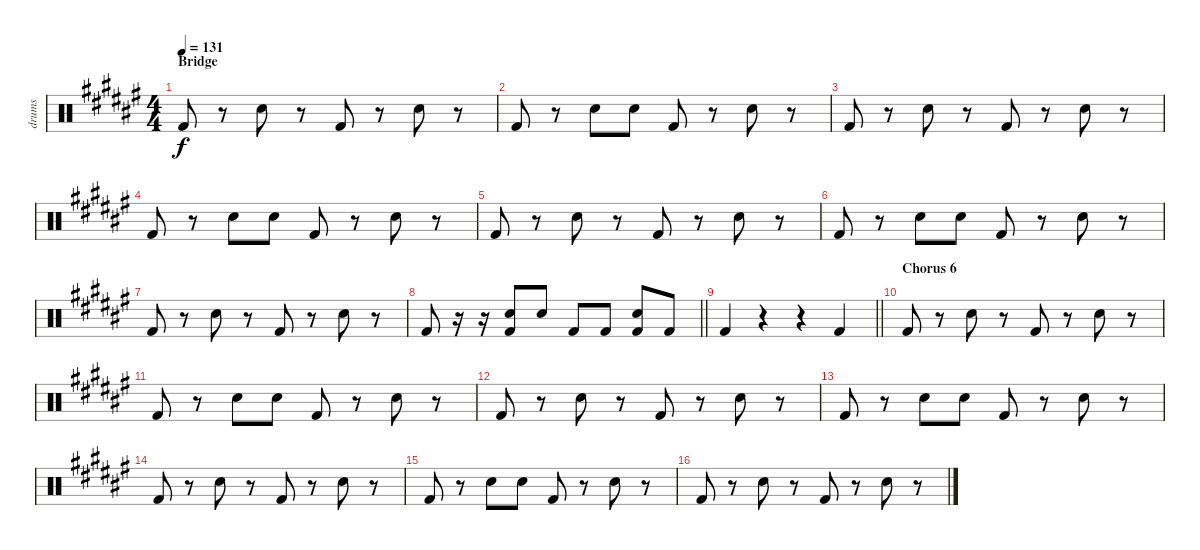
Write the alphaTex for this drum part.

\track ("drums" "drums") {instrument percussion}
\staff {score}
\articulation defaults
\ts (4 4)
\section ("" "Bridge")
\tempo 131
\clef neutral
\ks f# "Kick (hit) 2".8{dy f}
r.8 "Snare (hit) 2".8 r.8 "Kick (hit) 2".8 r.8 "Snare (hit) 2".8 r.8 |
"Kick (hit) 2".8 r.8 "Snare (hit) 2".8 "Snare (hit) 2".8 "Kick (hit) 2".8 r.8 "Snare (hit) 2".8 r.8 |
"Kick (hit) 2".8 r.8 "Snare (hit) 2".8 r.8 "Kick (hit) 2".8 r.8 "Snare (hit) 2".8 r.8 |
"Kick (hit) 2".8 r.8 "Snare (hit) 2".8 "Snare (hit) 2".8 "Kick (hit) 2".8 r.8 "Snare (hit) 2".8 r.8 |
"Kick (hit) 2".8 r.8 "Snare (hit) 2".8 r.8 "Kick (hit) 2".8 r.8 "Snare (hit) 2".8 r.8 |
"Kick (hit) 2".8 r.8 "Snare (hit) 2".8 "Snare (hit) 2".8 "Kick (hit) 2".8 r.8 "Snare (hit) 2".8 r.8 |
"Kick (hit) 2".8 r.8 "Snare (hit) 2".8 r.8 "Kick (hit) 2".8 r.8 "Snare (hit) 2".8 r.8 |
\barLineRight lightlight "Kick (hit) 2".8
r.16 r.16 ("Snare (hit) 2" "Kick (hit) 2").8 "Snare (hit) 2".8 "Kick (hit) 2".8 "Kick (hit) 2".8 ("Snare (hit) 2" "Kick (hit) 2").8 "Kick (hit) 2".8 |
\barLineRight lightlight "Kick (hit) 2".4
r.4 r.4 "Kick (hit) 2".4 |
\section ("" "Chorus 6")
"Kick (hit) 2".8 r.8 "Snare (hit) 2".8 r.8 "Kick (hit) 2".8 r.8 "Snare (hit) 2".8 r.8 |
"Kick (hit) 2".8 r.8 "Snare (hit) 2".8 "Snare (hit) 2".8 "Kick (hit) 2".8 r.8 "Snare (hit) 2".8 r.8 |
"Kick (hit) 2".8 r.8 "Snare (hit) 2".8 r.8 "Kick (hit) 2".8 r.8 "Snare (hit) 2".8 r.8 |
"Kick (hit) 2".8 r.8 "Snare (hit) 2".8 "Snare (hit) 2".8 "Kick (hit) 2".8 r.8 "Snare (hit) 2".8 r.8 |
"Kick (hit) 2".8 r.8 "Snare (hit) 2".8 r.8 "Kick (hit) 2".8 r.8 "Snare (hit) 2".8 r.8 |
"Kick (hit) 2".8 r.8 "Snare (hit) 2".8 "Snare (hit) 2".8 "Kick (hit) 2".8 r.8 "Snare (hit) 2".8 r.8 |
"Kick (hit) 2".8 r.8 "Snare (hit) 2".8 r.8 "Kick (hit) 2".8 r.8 "Snare (hit) 2".8 r.8
